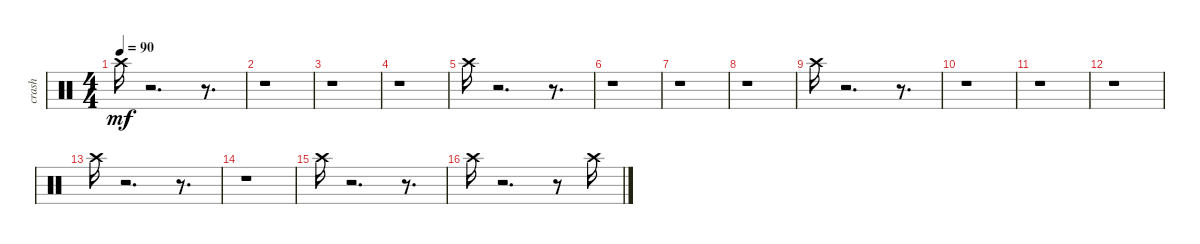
\track ("crash" "crash") {instrument percussion}
\staff {score}
\articulation defaults
\ts (4 4)
\tempo 90
\clef neutral
\ks c "Crash high (hit)".16{dy mf}
r.2{d} r.8{d} |
r.1 |
r.1 |
r.1 |
"Crash high (hit)".16 r.2{d} r.8{d} |
r.1 |
r.1 |
r.1 |
"Crash high (hit)".16 r.2{d} r.8{d} |
r.1 |
r.1 |
r.1 |
"Crash high (hit)".16 r.2{d} r.8{d} |
r.1 |
"Crash high (hit)".16 r.2{d} r.8{d} |
"Crash high (hit)".16 r.2{d} r.8 "Crash high (hit)".16
